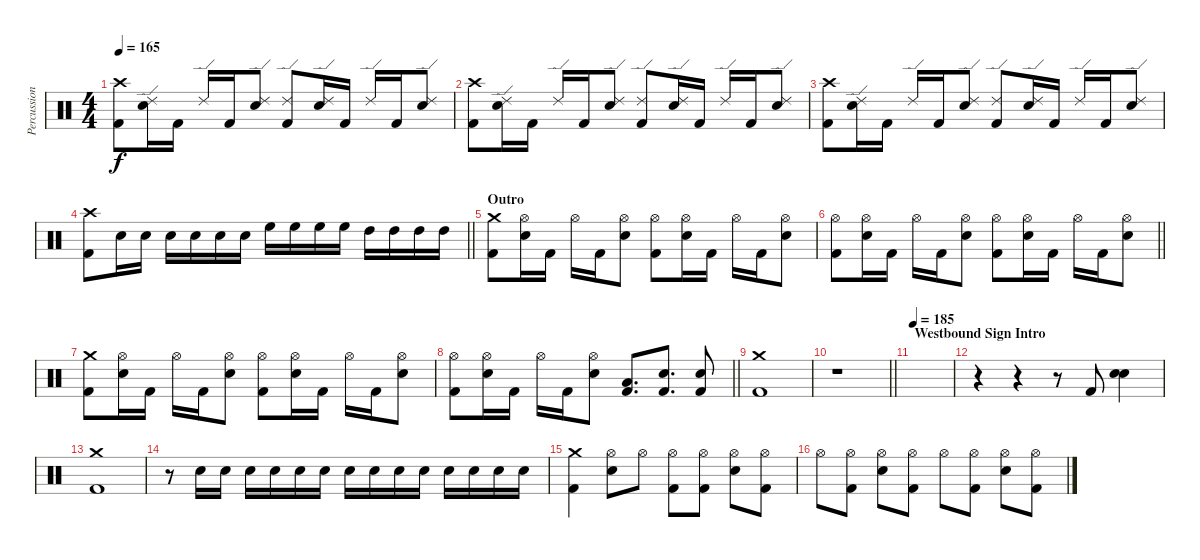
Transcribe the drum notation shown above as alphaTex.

\track ("Percussion" "Percussion") {instrument percussion}
\staff {score}
\articulation defaults
\ts (4 4)
\tempo 165
\clef neutral
\ks c
("Crash high (hit)" "Kick (hit) 2").8{dy f} ("Ride (edge) 2" "Electric Snare (hit)").16 "Kick (hit) 2".16 "Ride (edge) 2".16 "Kick (hit) 2".16 ("Ride (edge) 2" "Electric Snare (hit)").8 ("Ride (edge) 2" "Kick (hit) 2").8 ("Ride (edge) 2" "Electric Snare (hit)").16 "Kick (hit) 2".16 "Ride (edge) 2".16 "Kick (hit) 2".16 ("Ride (edge) 2" "Electric Snare (hit)").8 |
("Crash high (hit)" "Kick (hit) 2").8 ("Ride (edge) 2" "Electric Snare (hit)").16 "Kick (hit) 2".16 "Ride (edge) 2".16 "Kick (hit) 2".16 ("Ride (edge) 2" "Electric Snare (hit)").8 ("Ride (edge) 2" "Kick (hit) 2").8 ("Ride (edge) 2" "Electric Snare (hit)").16 "Kick (hit) 2".16 "Ride (edge) 2".16 "Kick (hit) 2".16 ("Ride (edge) 2" "Electric Snare (hit)").8 |
("Crash high (hit)" "Kick (hit) 2").8 ("Ride (edge) 2" "Electric Snare (hit)").16 "Kick (hit) 2".16 "Ride (edge) 2".16 "Kick (hit) 2".16 ("Ride (edge) 2" "Electric Snare (hit)").8 ("Ride (edge) 2" "Kick (hit) 2").8 ("Ride (edge) 2" "Electric Snare (hit)").16 "Kick (hit) 2".16 "Ride (edge) 2".16 "Kick (hit) 2".16 ("Ride (edge) 2" "Electric Snare (hit)").8 |
\barLineRight lightlight
("Crash high (hit)" "Kick (hit) 2").8 "Electric Snare (hit)".16 "Electric Snare (hit)".16 "Electric Snare (hit)".16 "Electric Snare (hit)".16 "Electric Snare (hit)".16 "Electric Snare (hit)".16 "High Floor Tom (hit)".16 "High Floor Tom (hit)".16 "High Floor Tom (hit)".16 "High Floor Tom (hit)".16 "High Tom (hit)".16 "High Tom (hit)".16 "High Tom (hit)".16 "High Tom (hit)".16 |
\section ("" "Outro")
("Crash medium (hit)" "Kick (hit) 2").8 ("Hi-Hat (open)" "Electric Snare (hit)").16 "Kick (hit) 2".16 "Hi-Hat (open)".16 "Kick (hit) 2".16 ("Hi-Hat (open)" "Electric Snare (hit)").8 ("Hi-Hat (open)" "Kick (hit) 2").8 ("Hi-Hat (open)" "Electric Snare (hit)").16 "Kick (hit) 2".16 "Hi-Hat (open)".16 "Kick (hit) 2".16 ("Hi-Hat (open)" "Electric Snare (hit)").8 |
\barLineRight lightlight
("Hi-Hat (open)" "Kick (hit) 2").8 ("Hi-Hat (open)" "Electric Snare (hit)").16 "Kick (hit) 2".16 "Hi-Hat (open)".16 "Kick (hit) 2".16 ("Hi-Hat (open)" "Electric Snare (hit)").8 ("Hi-Hat (open)" "Kick (hit) 2").8 ("Hi-Hat (open)" "Electric Snare (hit)").16 "Kick (hit) 2".16 "Hi-Hat (open)".16 "Kick (hit) 2".16 ("Hi-Hat (open)" "Electric Snare (hit)").8 |
("Crash medium (hit)" "Kick (hit) 2").8 ("Hi-Hat (open)" "Electric Snare (hit)").16 "Kick (hit) 2".16 "Hi-Hat (open)".16 "Kick (hit) 2".16 ("Hi-Hat (open)" "Electric Snare (hit)").8 ("Hi-Hat (open)" "Kick (hit) 2").8 ("Hi-Hat (open)" "Electric Snare (hit)").16 "Kick (hit) 2".16 "Hi-Hat (open)".16 "Kick (hit) 2".16 ("Hi-Hat (open)" "Electric Snare (hit)").8 |
\barLineRight lightlight
("Hi-Hat (open)" "Kick (hit) 2").8 ("Hi-Hat (open)" "Electric Snare (hit)").16 "Kick (hit) 2".16 "Hi-Hat (open)".16 "Kick (hit) 2".16 ("Hi-Hat (open)" "Electric Snare (hit)").8 ("Low Floor Tom (hit)" "Kick (hit) 2").8{d} ("Electric Snare (hit)" "Kick (hit) 2").8{d} ("Electric Snare (hit)" "Kick (hit) 2").8 |
("Crash medium (hit)" "Kick (hit) 2").1 |
\barLineRight lightlight
r.1 |
\section ("" "Westbound Sign Intro")
\tempo 185
|
r.4 r.4 r.8 "Kick (hit) 2".8 ("Electric Snare (hit)" "Electric Snare (hit)").4 |
("Crash medium (hit)" "Kick (hit) 2").1 |
r.8 "Electric Snare (hit)".16 "Electric Snare (hit)".16 "Electric Snare (hit)".16 "Electric Snare (hit)".16 "Electric Snare (hit)".16 "Electric Snare (hit)".16 "Electric Snare (hit)".16 "Electric Snare (hit)".16 "Electric Snare (hit)".16 "Electric Snare (hit)".16 "Electric Snare (hit)".16 "Electric Snare (hit)".16 "Electric Snare (hit)".16 "Electric Snare (hit)".16 |
("Crash medium (hit)" "Kick (hit) 2").4 ("Hi-Hat (open)" "Electric Snare (hit)").8 "Hi-Hat (open)".8 ("Hi-Hat (open)" "Kick (hit) 2").8 ("Hi-Hat (open)" "Kick (hit) 2").8 ("Hi-Hat (open)" "Electric Snare (hit)").8 ("Hi-Hat (open)" "Kick (hit) 2").8 |
"Hi-Hat (open)".8 ("Hi-Hat (open)" "Kick (hit) 2").8 ("Hi-Hat (open)" "Electric Snare (hit)").8 ("Hi-Hat (open)" "Kick (hit) 2").8 "Hi-Hat (open)".8 ("Hi-Hat (open)" "Kick (hit) 2").8 ("Hi-Hat (open)" "Electric Snare (hit)").8 ("Hi-Hat (open)" "Kick (hit) 2").8
